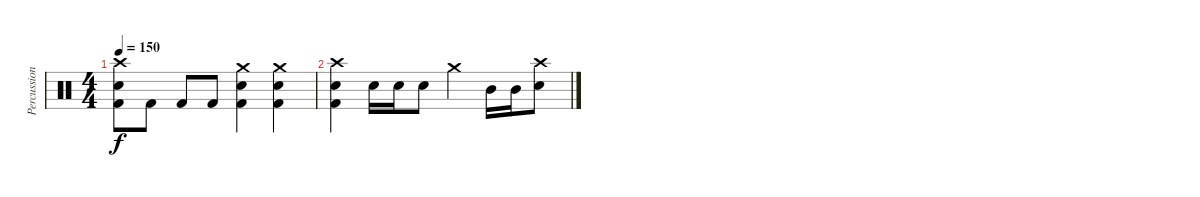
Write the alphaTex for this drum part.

\track ("Percussioni" "Percussion") {instrument percussion}
\staff {score}
\articulation defaults
\ts (4 4)
\tempo 150
\clef neutral
\ks c
("Crash high (hit)" "Snare (hit) 2" "Kick (hit) 2").8{dy f} "Kick (hit) 2".8 "Kick (hit) 2".8 "Kick (hit) 2".8 ("Crash medium (hit)" "Snare (hit) 2" "Kick (hit) 2").4 ("Crash medium (hit)" "Snare (hit) 2" "Kick (hit) 2").4 |
("Crash high (hit)" "Snare (hit) 2" "Kick (hit) 2").4 "Snare (hit) 2".16 "Snare (hit) 2".16 "Snare (hit) 2".8 "Crash medium (hit)".4 "Mid Tom (hit)".16 "Mid Tom (hit)".16 ("Crash high (hit)" "Snare (hit) 2").8
